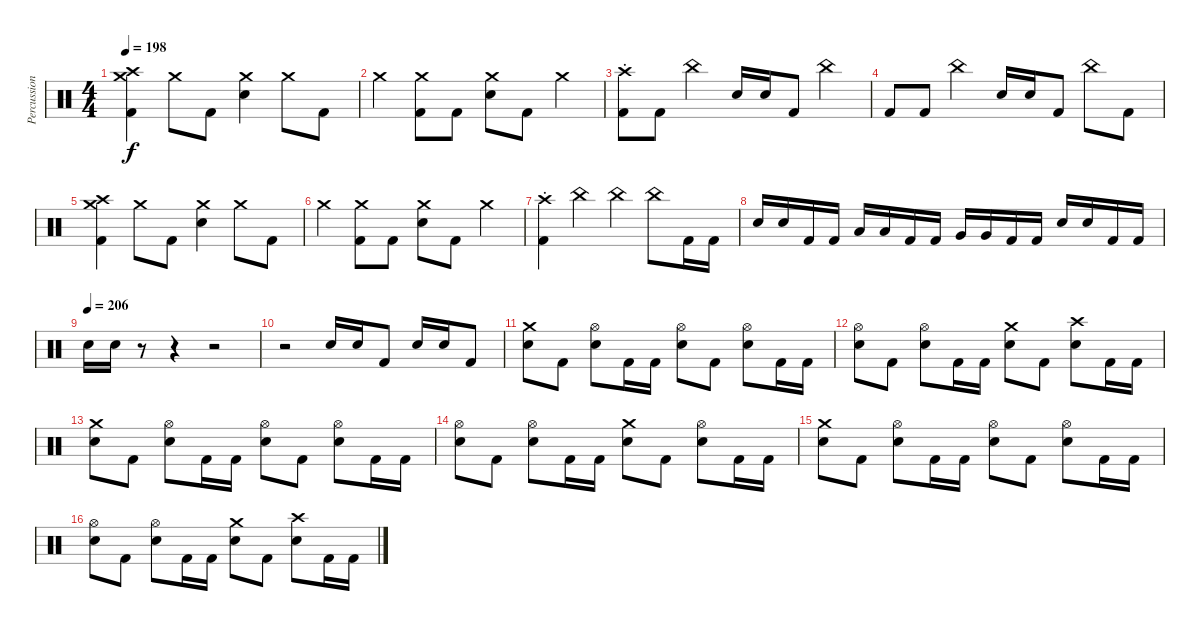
\track ("Percussion" "Percussion") {instrument percussion}
\staff {score}
\articulation defaults
\ts (4 4)
\tempo 198
\clef neutral
\ks c
("Crash medium (hit)" "Crash high (hit)" "Kick (hit) 2").4{dy f} "Crash medium (hit)".8 "Kick (hit) 2".8 ("Crash medium (hit)" "Electric Snare (hit)").4 "Crash medium (hit)".8 "Kick (hit) 2".8 |
"Crash medium (hit)".4 ("Crash medium (hit)" "Kick (hit) 2").8 "Kick (hit) 2".8 ("Crash medium (hit)" "Electric Snare (hit)").8 "Kick (hit) 2".8 "Crash medium (hit)".4 |
("Crash high (hit)"{st} "Kick (hit) 2").8 "Kick (hit) 2".8 "China (hit)".4 "Electric Snare (hit)".16 "Electric Snare (hit)".16 "Kick (hit) 2".8 "China (hit)".4 |
"Kick (hit) 2".8 "Kick (hit) 2".8 "China (hit)".4 "Electric Snare (hit)".16 "Electric Snare (hit)".16 "Kick (hit) 2".8 "China (hit)".8 "Kick (hit) 2".8 |
("Crash medium (hit)" "Crash high (hit)" "Kick (hit) 2").4 "Crash medium (hit)".8 "Kick (hit) 2".8 ("Crash medium (hit)" "Electric Snare (hit)").4 "Crash medium (hit)".8 "Kick (hit) 2".8 |
"Crash medium (hit)".4 ("Crash medium (hit)" "Kick (hit) 2").8 "Kick (hit) 2".8 ("Crash medium (hit)" "Electric Snare (hit)").8 "Kick (hit) 2".8 "Crash medium (hit)".4 |
("Crash high (hit)"{st} "Kick (hit) 2").4 "China (hit)".4 "China (hit)".4 "China (hit)".8 "Kick (hit) 2".16 "Kick (hit) 2".16 |
"Electric Snare (hit)".16 "Electric Snare (hit)".16 "Kick (hit) 2".16 "Kick (hit) 2".16 "Low Tom (hit)".16 "Low Tom (hit)".16 "Kick (hit) 2".16 "Kick (hit) 2".16 "Very Low Tom (hit)".16 "Very Low Tom (hit)".16 "Kick (hit) 2".16 "Kick (hit) 2".16 "Electric Snare (hit)".16 "Electric Snare (hit)".16 "Kick (hit) 2".16 "Kick (hit) 2".16 |
\tempo (206)
"Electric Snare (hit)".16 "Electric Snare (hit)".16 r.8 r.4 r.2 |
r.2 "Electric Snare (hit)".16 "Electric Snare (hit)".16 "Kick (hit) 2".8 "Electric Snare (hit)".16 "Electric Snare (hit)".16 "Kick (hit) 2".8 |
("Crash medium (hit)" "Electric Snare (hit)").8 "Kick (hit) 2".8 ("Hi-Hat (open)" "Electric Snare (hit)").8 "Kick (hit) 2".16 "Kick (hit) 2".16 ("Hi-Hat (open)" "Electric Snare (hit)").8 "Kick (hit) 2".8 ("Hi-Hat (open)" "Electric Snare (hit)").8 "Kick (hit) 2".16 "Kick (hit) 2".16 |
("Hi-Hat (open)" "Electric Snare (hit)").8 "Kick (hit) 2".8 ("Hi-Hat (open)" "Electric Snare (hit)").8 "Kick (hit) 2".16 "Kick (hit) 2".16 ("Crash medium (hit)" "Electric Snare (hit)").8 "Kick (hit) 2".8 ("Crash high (hit)" "Electric Snare (hit)").8 "Kick (hit) 2".16 "Kick (hit) 2".16 |
("Crash medium (hit)" "Electric Snare (hit)").8 "Kick (hit) 2".8 ("Hi-Hat (open)" "Electric Snare (hit)").8 "Kick (hit) 2".16 "Kick (hit) 2".16 ("Hi-Hat (open)" "Electric Snare (hit)").8 "Kick (hit) 2".8 ("Hi-Hat (open)" "Electric Snare (hit)").8 "Kick (hit) 2".16 "Kick (hit) 2".16 |
("Hi-Hat (open)" "Electric Snare (hit)").8 "Kick (hit) 2".8 ("Hi-Hat (open)" "Electric Snare (hit)").8 "Kick (hit) 2".16 "Kick (hit) 2".16 ("Crash medium (hit)" "Electric Snare (hit)").8 "Kick (hit) 2".8 ("Hi-Hat (open)" "Electric Snare (hit)").8 "Kick (hit) 2".16 "Kick (hit) 2".16 |
("Crash medium (hit)" "Electric Snare (hit)").8 "Kick (hit) 2".8 ("Hi-Hat (open)" "Electric Snare (hit)").8 "Kick (hit) 2".16 "Kick (hit) 2".16 ("Hi-Hat (open)" "Electric Snare (hit)").8 "Kick (hit) 2".8 ("Hi-Hat (open)" "Electric Snare (hit)").8 "Kick (hit) 2".16 "Kick (hit) 2".16 |
("Hi-Hat (open)" "Electric Snare (hit)").8 "Kick (hit) 2".8 ("Hi-Hat (open)" "Electric Snare (hit)").8 "Kick (hit) 2".16 "Kick (hit) 2".16 ("Crash medium (hit)" "Electric Snare (hit)").8 "Kick (hit) 2".8 ("Crash high (hit)" "Electric Snare (hit)").8 "Kick (hit) 2".16 "Kick (hit) 2".16
